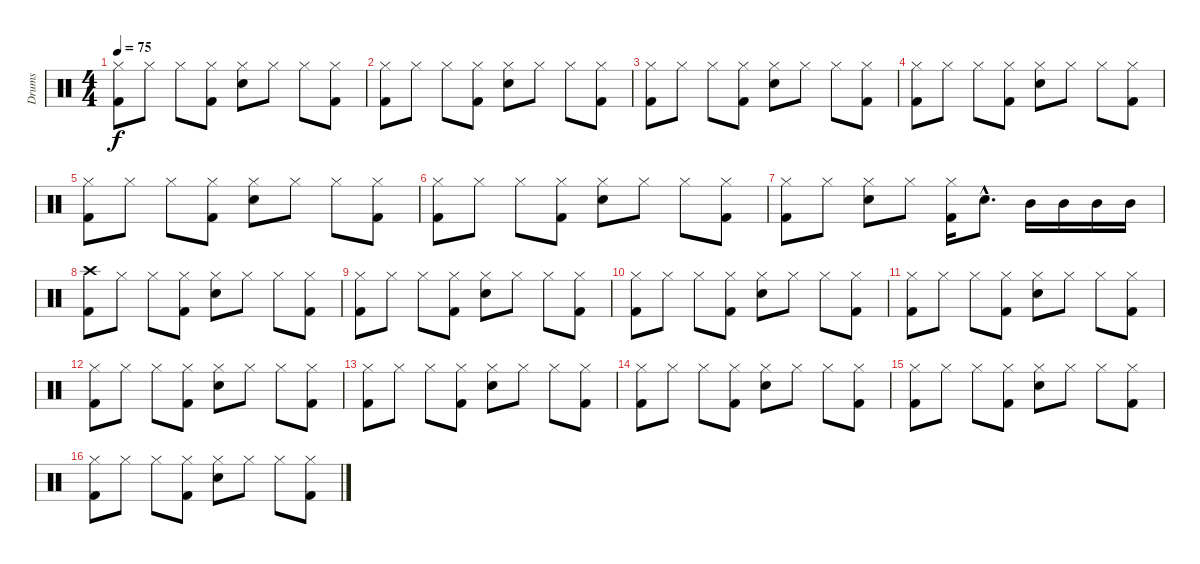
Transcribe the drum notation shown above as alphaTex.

\track ("Drums" "Drums") {instrument percussion}
\staff {score}
\articulation defaults
\ts (4 4)
\tempo 75
\clef neutral
\ks c
("Kick (hit) 2" "Hi-Hat (closed)").8{dy f} "Hi-Hat (closed)".8 "Hi-Hat (closed)".8 ("Kick (hit) 2" "Hi-Hat (closed)").8 ("Snare (hit) 2" "Hi-Hat (closed)").8 "Hi-Hat (closed)".8 "Hi-Hat (closed)".8 ("Kick (hit) 2" "Hi-Hat (closed)").8 |
("Kick (hit) 2" "Hi-Hat (closed)").8 "Hi-Hat (closed)".8 "Hi-Hat (closed)".8 ("Kick (hit) 2" "Hi-Hat (closed)").8 ("Snare (hit) 2" "Hi-Hat (closed)").8 "Hi-Hat (closed)".8 "Hi-Hat (closed)".8 ("Kick (hit) 2" "Hi-Hat (closed)").8 |
("Kick (hit) 2" "Hi-Hat (closed)").8 "Hi-Hat (closed)".8 "Hi-Hat (closed)".8 ("Kick (hit) 2" "Hi-Hat (closed)").8 ("Snare (hit) 2" "Hi-Hat (closed)").8 "Hi-Hat (closed)".8 "Hi-Hat (closed)".8 ("Kick (hit) 2" "Hi-Hat (closed)").8 |
("Kick (hit) 2" "Hi-Hat (closed)").8 "Hi-Hat (closed)".8 "Hi-Hat (closed)".8 ("Kick (hit) 2" "Hi-Hat (closed)").8 ("Snare (hit) 2" "Hi-Hat (closed)").8 "Hi-Hat (closed)".8 "Hi-Hat (closed)".8 ("Kick (hit) 2" "Hi-Hat (closed)").8 |
("Kick (hit) 2" "Hi-Hat (closed)").8 "Hi-Hat (closed)".8 "Hi-Hat (closed)".8 ("Kick (hit) 2" "Hi-Hat (closed)").8 ("Snare (hit) 2" "Hi-Hat (closed)").8 "Hi-Hat (closed)".8 "Hi-Hat (closed)".8 ("Kick (hit) 2" "Hi-Hat (closed)").8 |
("Kick (hit) 2" "Hi-Hat (closed)").8 "Hi-Hat (closed)".8 "Hi-Hat (closed)".8 ("Kick (hit) 2" "Hi-Hat (closed)").8 ("Snare (hit) 2" "Hi-Hat (closed)").8 "Hi-Hat (closed)".8 "Hi-Hat (closed)".8 ("Kick (hit) 2" "Hi-Hat (closed)").8 |
("Kick (hit) 2" "Hi-Hat (closed)").8 "Hi-Hat (closed)".8 ("Snare (hit) 2" "Hi-Hat (closed)").8 "Hi-Hat (closed)".8 ("Kick (hit) 2" "Hi-Hat (closed)").16 "Snare (hit) 2"{hac}.8{d} "Mid Tom (hit)".16 "Mid Tom (hit)".16 "Mid Tom (hit)".16 "Mid Tom (hit)".16 |
("Kick (hit) 2" "Crash high (hit)").8 "Hi-Hat (closed)".8 "Hi-Hat (closed)".8 ("Kick (hit) 2" "Hi-Hat (closed)").8 ("Snare (hit) 2" "Hi-Hat (closed)").8 "Hi-Hat (closed)".8 "Hi-Hat (closed)".8 ("Kick (hit) 2" "Hi-Hat (closed)").8 |
("Kick (hit) 2" "Hi-Hat (closed)").8 "Hi-Hat (closed)".8 "Hi-Hat (closed)".8 ("Kick (hit) 2" "Hi-Hat (closed)").8 ("Snare (hit) 2" "Hi-Hat (closed)").8 "Hi-Hat (closed)".8 "Hi-Hat (closed)".8 ("Kick (hit) 2" "Hi-Hat (closed)").8 |
("Kick (hit) 2" "Hi-Hat (closed)").8 "Hi-Hat (closed)".8 "Hi-Hat (closed)".8 ("Kick (hit) 2" "Hi-Hat (closed)").8 ("Snare (hit) 2" "Hi-Hat (closed)").8 "Hi-Hat (closed)".8 "Hi-Hat (closed)".8 ("Kick (hit) 2" "Hi-Hat (closed)").8 |
("Kick (hit) 2" "Hi-Hat (closed)").8 "Hi-Hat (closed)".8 "Hi-Hat (closed)".8 ("Kick (hit) 2" "Hi-Hat (closed)").8 ("Snare (hit) 2" "Hi-Hat (closed)").8 "Hi-Hat (closed)".8 "Hi-Hat (closed)".8 ("Kick (hit) 2" "Hi-Hat (closed)").8 |
("Kick (hit) 2" "Hi-Hat (closed)").8 "Hi-Hat (closed)".8 "Hi-Hat (closed)".8 ("Kick (hit) 2" "Hi-Hat (closed)").8 ("Snare (hit) 2" "Hi-Hat (closed)").8 "Hi-Hat (closed)".8 "Hi-Hat (closed)".8 ("Kick (hit) 2" "Hi-Hat (closed)").8 |
("Kick (hit) 2" "Hi-Hat (closed)").8 "Hi-Hat (closed)".8 "Hi-Hat (closed)".8 ("Kick (hit) 2" "Hi-Hat (closed)").8 ("Snare (hit) 2" "Hi-Hat (closed)").8 "Hi-Hat (closed)".8 "Hi-Hat (closed)".8 ("Kick (hit) 2" "Hi-Hat (closed)").8 |
("Kick (hit) 2" "Hi-Hat (closed)").8 "Hi-Hat (closed)".8 "Hi-Hat (closed)".8 ("Kick (hit) 2" "Hi-Hat (closed)").8 ("Snare (hit) 2" "Hi-Hat (closed)").8 "Hi-Hat (closed)".8 "Hi-Hat (closed)".8 ("Kick (hit) 2" "Hi-Hat (closed)").8 |
("Kick (hit) 2" "Hi-Hat (closed)").8 "Hi-Hat (closed)".8 "Hi-Hat (closed)".8 ("Kick (hit) 2" "Hi-Hat (closed)").8 ("Snare (hit) 2" "Hi-Hat (closed)").8 "Hi-Hat (closed)".8 "Hi-Hat (closed)".8 ("Kick (hit) 2" "Hi-Hat (closed)").8 |
("Kick (hit) 2" "Hi-Hat (closed)").8 "Hi-Hat (closed)".8 "Hi-Hat (closed)".8 ("Kick (hit) 2" "Hi-Hat (closed)").8 ("Snare (hit) 2" "Hi-Hat (closed)").8 "Hi-Hat (closed)".8 "Hi-Hat (closed)".8 ("Kick (hit) 2" "Hi-Hat (closed)").8
